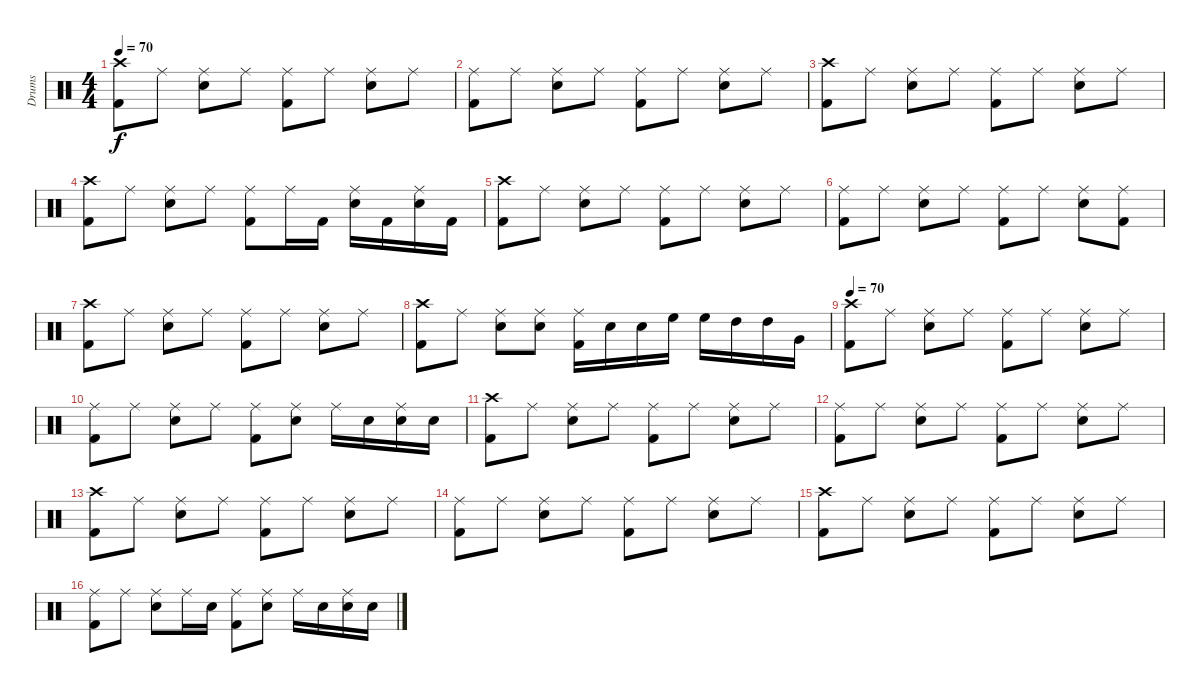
\track ("Drums" "Drums") {instrument percussion}
\staff {score}
\articulation defaults
\ts (4 4)
\tempo 70
\clef neutral
\ks c
("Crash high (hit)" "Kick (hit) 2").8{dy f} "Ride (middle)".8 ("Ride (middle)" "Electric Snare (hit)").8 "Ride (middle)".8 ("Ride (middle)" "Kick (hit) 2").8 "Ride (middle)".8 ("Ride (middle)" "Electric Snare (hit)").8 "Ride (middle)".8 |
("Ride (middle)" "Kick (hit) 2").8 "Ride (middle)".8 ("Ride (middle)" "Electric Snare (hit)").8 "Ride (middle)".8 ("Ride (middle)" "Kick (hit) 2").8 "Ride (middle)".8 ("Ride (middle)" "Electric Snare (hit)").8 "Ride (middle)".8 |
("Crash high (hit)" "Kick (hit) 2").8 "Ride (middle)".8 ("Ride (middle)" "Electric Snare (hit)").8 "Ride (middle)".8 ("Ride (middle)" "Kick (hit) 2").8 "Ride (middle)".8 ("Ride (middle)" "Electric Snare (hit)").8 "Ride (middle)".8 |
("Crash high (hit)" "Kick (hit) 2").8 "Ride (middle)".8 ("Ride (middle)" "Electric Snare (hit)").8 "Ride (middle)".8 ("Ride (middle)" "Kick (hit) 2").8 "Ride (middle)".16 "Kick (hit) 2".16 ("Ride (middle)" "Electric Snare (hit)").16 "Kick (hit) 2".16 ("Ride (middle)" "Electric Snare (hit)").16 "Kick (hit) 2".16 |
("Crash high (hit)" "Kick (hit) 2").8 "Ride (middle)".8 ("Ride (middle)" "Electric Snare (hit)").8 "Ride (middle)".8 ("Ride (middle)" "Kick (hit) 2").8 "Ride (middle)".8 ("Ride (middle)" "Electric Snare (hit)").8 "Ride (middle)".8 |
("Ride (middle)" "Kick (hit) 2").8 "Ride (middle)".8 ("Ride (middle)" "Electric Snare (hit)").8 "Ride (middle)".8 ("Ride (middle)" "Kick (hit) 2").8 "Ride (middle)".8 ("Ride (middle)" "Electric Snare (hit)").8 ("Ride (middle)" "Kick (hit) 2").8 |
("Crash high (hit)" "Kick (hit) 2").8 "Ride (middle)".8 ("Ride (middle)" "Electric Snare (hit)").8 "Ride (middle)".8 ("Ride (middle)" "Kick (hit) 2").8 "Ride (middle)".8 ("Ride (middle)" "Electric Snare (hit)").8 "Ride (middle)".8 |
("Crash high (hit)" "Kick (hit) 2").8 "Ride (middle)".8 ("Ride (middle)" "Electric Snare (hit)").8 ("Ride (middle)" "Electric Snare (hit)").8 ("Ride (middle)" "Kick (hit) 2").16 "Electric Snare (hit)".16 "Electric Snare (hit)".16 "High Floor Tom (hit)".16 "High Floor Tom (hit)".16 "High Tom (hit)".16 "High Tom (hit)".16 "Very Low Tom (hit)".16 |
\tempo 70
("Crash high (hit)" "Kick (hit) 2").8 "Ride (middle)".8 ("Ride (middle)" "Electric Snare (hit)").8 "Ride (middle)".8 ("Ride (middle)" "Kick (hit) 2").8 "Ride (middle)".8 ("Ride (middle)" "Electric Snare (hit)").8 "Ride (middle)".8 |
("Ride (middle)" "Kick (hit) 2").8 "Ride (middle)".8 ("Ride (middle)" "Electric Snare (hit)").8 "Ride (middle)".8 ("Ride (middle)" "Kick (hit) 2").8 ("Ride (middle)" "Electric Snare (hit)").8 "Ride (middle)".16 "Electric Snare (hit)".16 ("Ride (middle)" "Electric Snare (hit)").16 "Electric Snare (hit)".16 |
("Crash high (hit)" "Kick (hit) 2").8 "Ride (middle)".8 ("Ride (middle)" "Electric Snare (hit)").8 "Ride (middle)".8 ("Ride (middle)" "Kick (hit) 2").8 "Ride (middle)".8 ("Ride (middle)" "Electric Snare (hit)").8 "Ride (middle)".8 |
("Ride (middle)" "Kick (hit) 2").8 "Ride (middle)".8 ("Ride (middle)" "Electric Snare (hit)").8 "Ride (middle)".8 ("Ride (middle)" "Kick (hit) 2").8 "Ride (middle)".8 ("Ride (middle)" "Electric Snare (hit)").8 "Ride (middle)".8 |
("Crash high (hit)" "Kick (hit) 2").8 "Ride (middle)".8 ("Ride (middle)" "Electric Snare (hit)").8 "Ride (middle)".8 ("Ride (middle)" "Kick (hit) 2").8 "Ride (middle)".8 ("Ride (middle)" "Electric Snare (hit)").8 "Ride (middle)".8 |
("Ride (middle)" "Kick (hit) 2").8 "Ride (middle)".8 ("Ride (middle)" "Electric Snare (hit)").8 "Ride (middle)".8 ("Ride (middle)" "Kick (hit) 2").8 "Ride (middle)".8 ("Ride (middle)" "Electric Snare (hit)").8 "Ride (middle)".8 |
("Crash high (hit)" "Kick (hit) 2").8 "Ride (middle)".8 ("Ride (middle)" "Electric Snare (hit)").8 "Ride (middle)".8 ("Ride (middle)" "Kick (hit) 2").8 "Ride (middle)".8 ("Ride (middle)" "Electric Snare (hit)").8 "Ride (middle)".8 |
("Ride (middle)" "Kick (hit) 2").8 "Ride (middle)".8 ("Ride (middle)" "Electric Snare (hit)").8 "Ride (middle)".16 "Electric Snare (hit)".16 ("Ride (middle)" "Kick (hit) 2").8 ("Ride (middle)" "Electric Snare (hit)").8 "Ride (middle)".16 "Electric Snare (hit)".16 ("Ride (middle)" "Electric Snare (hit)").16 "Electric Snare (hit)".16
